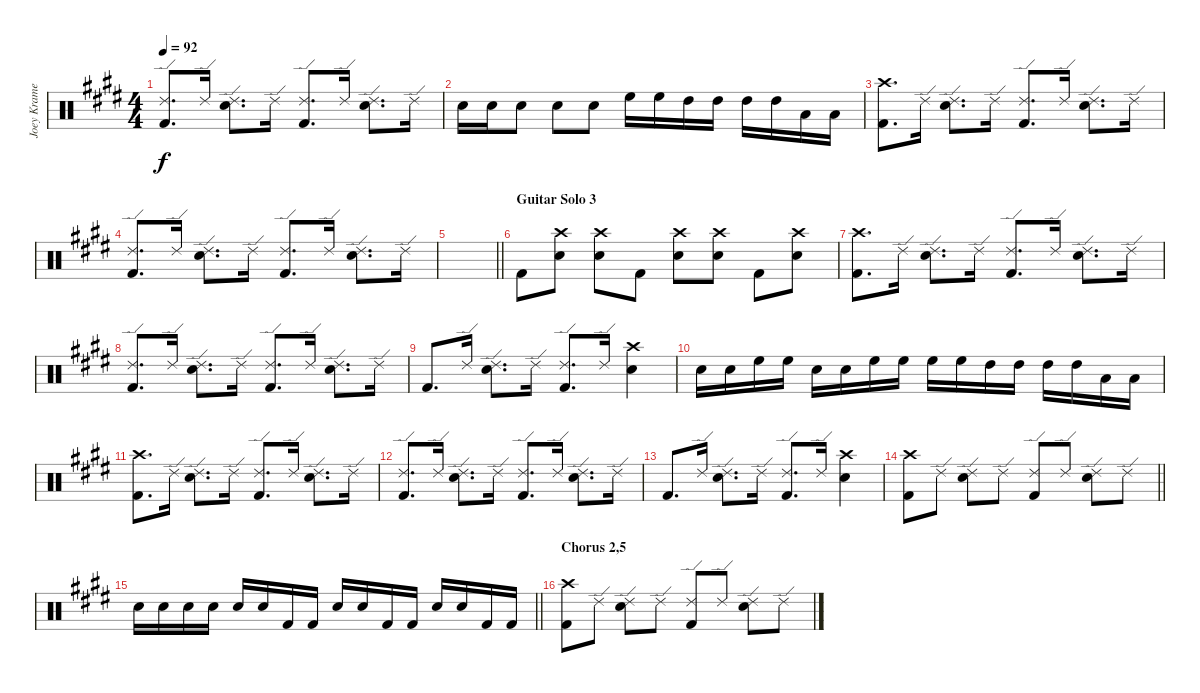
\track ("Joey Kramer" "Joey Krame") {instrument percussion}
\staff {score}
\articulation defaults
\ts (4 4)
\tempo 92
\clef neutral
\ks e
("Ride (edge) 2" "Kick (hit) 2").8{d dy f} "Ride (edge) 2".16 ("Ride (edge) 2" "Electric Snare (hit)").8{d} "Ride (edge) 2".16 ("Ride (edge) 2" "Kick (hit) 2").8{d} "Ride (edge) 2".16 ("Ride (edge) 2" "Electric Snare (hit)").8{d} "Ride (edge) 2".16 |
"Electric Snare (hit)".16 "Electric Snare (hit)".16 "Electric Snare (hit)".8 "Electric Snare (hit)".8 "Electric Snare (hit)".8 "High Floor Tom (hit)".16 "High Floor Tom (hit)".16 "High Tom (hit)".16 "High Tom (hit)".16 "High Tom (hit)".16 "High Tom (hit)".16 "Low Tom (hit)".16 "Low Tom (hit)".16 |
("Crash high (hit)" "Kick (hit) 2").8{d} "Ride (edge) 2".16 ("Ride (edge) 2" "Electric Snare (hit)").8{d} "Ride (edge) 2".16 ("Ride (edge) 2" "Kick (hit) 2").8{d} "Ride (edge) 2".16 ("Ride (edge) 2" "Electric Snare (hit)").8{d} "Ride (edge) 2".16 |
("Ride (edge) 2" "Kick (hit) 2").8{d} "Ride (edge) 2".16 ("Ride (edge) 2" "Electric Snare (hit)").8{d} "Ride (edge) 2".16 ("Ride (edge) 2" "Kick (hit) 2").8{d} "Ride (edge) 2".16 ("Ride (edge) 2" "Electric Snare (hit)").8{d} "Ride (edge) 2".16 |
\barLineRight lightlight
|
\section ("" "Guitar Solo 3")
"Kick (hit) 2".8 ("Crash high (hit)" "Electric Snare (hit)").8 ("Crash high (hit)" "Electric Snare (hit)").8 "Kick (hit) 2".8 ("Crash high (hit)" "Electric Snare (hit)").8 ("Crash high (hit)" "Electric Snare (hit)").8 "Kick (hit) 2".8 ("Crash high (hit)" "Electric Snare (hit)").8 |
("Crash high (hit)" "Kick (hit) 2").8{d} "Ride (edge) 2".16 ("Ride (edge) 2" "Electric Snare (hit)").8{d} "Ride (edge) 2".16 ("Ride (edge) 2" "Kick (hit) 2").8{d} "Ride (edge) 2".16 ("Ride (edge) 2" "Electric Snare (hit)").8{d} "Ride (edge) 2".16 |
("Ride (edge) 2" "Kick (hit) 2").8{d} "Ride (edge) 2".16 ("Ride (edge) 2" "Electric Snare (hit)").8{d} "Ride (edge) 2".16 ("Ride (edge) 2" "Kick (hit) 2").8{d} "Ride (edge) 2".16 ("Ride (edge) 2" "Electric Snare (hit)").8{d} "Ride (edge) 2".16 |
"Kick (hit) 2".8{d} "Ride (edge) 2".16 ("Ride (edge) 2" "Electric Snare (hit)").8{d} "Ride (edge) 2".16 ("Ride (edge) 2" "Kick (hit) 2").8{d} "Ride (edge) 2".16 ("Crash high (hit)" "Electric Snare (hit)").4 |
"Electric Snare (hit)".16 "Electric Snare (hit)".16 "High Floor Tom (hit)".16 "High Floor Tom (hit)".16 "Electric Snare (hit)".16 "Electric Snare (hit)".16 "High Floor Tom (hit)".16 "High Floor Tom (hit)".16 "High Floor Tom (hit)".16 "High Floor Tom (hit)".16 "High Tom (hit)".16 "High Tom (hit)".16 "High Tom (hit)".16 "High Tom (hit)".16 "Low Tom (hit)".16 "Low Tom (hit)".16 |
("Crash high (hit)" "Kick (hit) 2").8{d} "Ride (edge) 2".16 ("Ride (edge) 2" "Electric Snare (hit)").8{d} "Ride (edge) 2".16 ("Ride (edge) 2" "Kick (hit) 2").8{d} "Ride (edge) 2".16 ("Ride (edge) 2" "Electric Snare (hit)").8{d} "Ride (edge) 2".16 |
("Ride (edge) 2" "Kick (hit) 2").8{d} "Ride (edge) 2".16 ("Ride (edge) 2" "Electric Snare (hit)").8{d} "Ride (edge) 2".16 ("Ride (edge) 2" "Kick (hit) 2").8{d} "Ride (edge) 2".16 ("Ride (edge) 2" "Electric Snare (hit)").8{d} "Ride (edge) 2".16 |
"Kick (hit) 2".8{d} "Ride (edge) 2".16 ("Ride (edge) 2" "Electric Snare (hit)").8{d} "Ride (edge) 2".16 ("Ride (edge) 2" "Kick (hit) 2").8{d} "Ride (edge) 2".16 ("Crash high (hit)" "Electric Snare (hit)").4 |
\barLineRight lightlight
("Crash high (hit)" "Kick (hit) 2").8 "Ride (edge) 2".8 ("Ride (edge) 2" "Electric Snare (hit)").8 "Ride (edge) 2".8 ("Ride (edge) 2" "Kick (hit) 2").8 "Ride (edge) 2".8 ("Ride (edge) 2" "Electric Snare (hit)").8 "Ride (edge) 2".8 |
\barLineRight lightlight "Electric Snare (hit)".16 "Electric Snare (hit)".16 "Electric Snare (hit)".16 "Electric Snare (hit)".16 "Electric Snare (hit)".16 "Electric Snare (hit)".16 "Kick (hit) 2".16 "Kick (hit) 2".16 "Electric Snare (hit)".16 "Electric Snare (hit)".16 "Kick (hit) 2".16 "Kick (hit) 2".16 "Electric Snare (hit)".16 "Electric Snare (hit)".16 "Kick (hit) 2".16 "Kick (hit) 2".16
|
\section ("" "Chorus 2,5")
("Crash high (hit)" "Kick (hit) 2").8 "Ride (edge) 2".8 ("Ride (edge) 2" "Electric Snare (hit)").8 "Ride (edge) 2".8 ("Ride (edge) 2" "Kick (hit) 2").8 "Ride (edge) 2".8 ("Ride (edge) 2" "Electric Snare (hit)").8 "Ride (edge) 2".8
